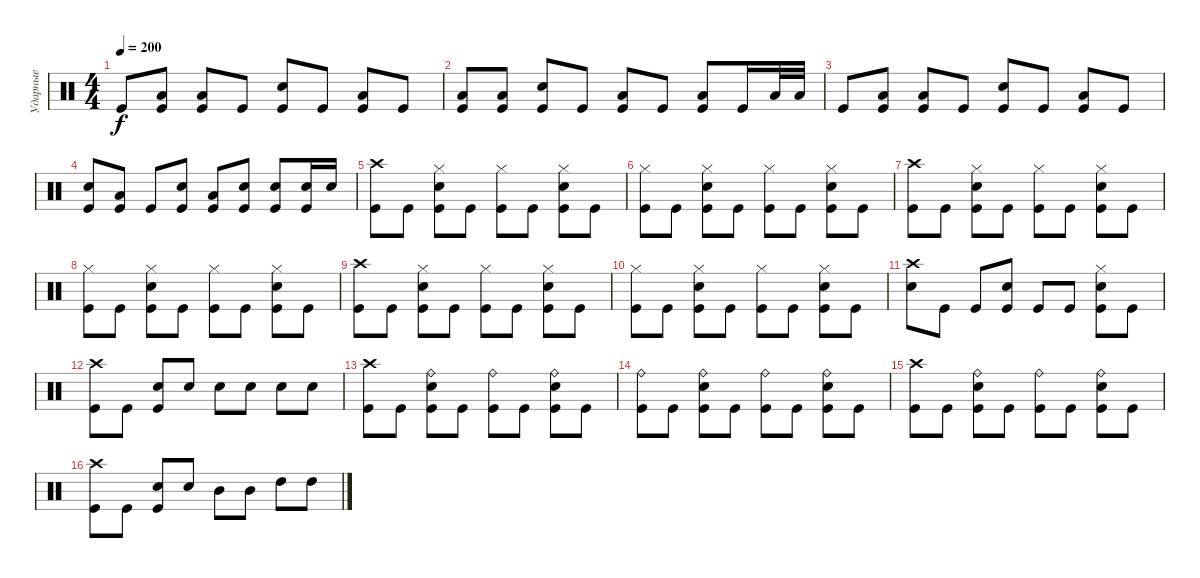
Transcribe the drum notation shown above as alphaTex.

\track ("Ударные" "Ударные") {instrument percussion}
\staff {score}
\articulation defaults
\ts (4 4)
\tempo 200
\clef neutral
\ks c "Kick (hit)".8{dy f}
("Low Tom (hit)" "Kick (hit)").8 ("Low Tom (hit)" "Kick (hit)").8 "Kick (hit)".8 ("Electric Snare (hit)" "Kick (hit)").8 "Kick (hit)".8 ("Low Tom (hit)" "Kick (hit)").8 "Kick (hit)".8 |
("Low Tom (hit)" "Kick (hit)").8 ("Low Tom (hit)" "Kick (hit)").8 ("Electric Snare (hit)" "Kick (hit)").8 "Kick (hit)".8 ("Low Tom (hit)" "Kick (hit)").8 "Kick (hit)".8 ("Low Tom (hit)" "Kick (hit)").8 "Kick (hit)".16 "Low Tom (hit)".32 "Low Tom (hit)".32 |
"Kick (hit)".8 ("Low Tom (hit)" "Kick (hit)").8 ("Low Tom (hit)" "Kick (hit)").8 "Kick (hit)".8 ("Electric Snare (hit)" "Kick (hit)").8 "Kick (hit)".8 ("Low Tom (hit)" "Kick (hit)").8 "Kick (hit)".8 |
("Electric Snare (hit)" "Kick (hit)").8 ("Low Tom (hit)" "Kick (hit)").8 "Kick (hit)".8 ("Electric Snare (hit)" "Kick (hit)").8 ("Low Tom (hit)" "Kick (hit)").8 ("Electric Snare (hit)" "Kick (hit)").8 ("Electric Snare (hit)" "Kick (hit)").8 ("Electric Snare (hit)" "Kick (hit)").16 "Electric Snare (hit)".16 |
("Crash high (hit)" "Kick (hit)").8 "Kick (hit)".8 ("Hi-Hat (closed)" "Electric Snare (hit)" "Kick (hit)").8 "Kick (hit)".8 ("Hi-Hat (closed)" "Kick (hit)").8 "Kick (hit)".8 ("Hi-Hat (closed)" "Electric Snare (hit)" "Kick (hit)").8 "Kick (hit)".8 |
("Hi-Hat (closed)" "Kick (hit)").8 "Kick (hit)".8 ("Hi-Hat (closed)" "Electric Snare (hit)" "Kick (hit)").8 "Kick (hit)".8 ("Hi-Hat (closed)" "Kick (hit)").8 "Kick (hit)".8 ("Hi-Hat (closed)" "Electric Snare (hit)" "Kick (hit)").8 "Kick (hit)".8 |
("Crash high (hit)" "Kick (hit)").8 "Kick (hit)".8 ("Hi-Hat (closed)" "Electric Snare (hit)" "Kick (hit)").8 "Kick (hit)".8 ("Hi-Hat (closed)" "Kick (hit)").8 "Kick (hit)".8 ("Hi-Hat (closed)" "Electric Snare (hit)" "Kick (hit)").8 "Kick (hit)".8 |
("Hi-Hat (closed)" "Kick (hit)").8 "Kick (hit)".8 ("Hi-Hat (closed)" "Electric Snare (hit)" "Kick (hit)").8 "Kick (hit)".8 ("Hi-Hat (closed)" "Kick (hit)").8 "Kick (hit)".8 ("Hi-Hat (closed)" "Electric Snare (hit)" "Kick (hit)").8 "Kick (hit)".8 |
("Crash high (hit)" "Kick (hit)").8 "Kick (hit)".8 ("Hi-Hat (closed)" "Electric Snare (hit)" "Kick (hit)").8 "Kick (hit)".8 ("Hi-Hat (closed)" "Kick (hit)").8 "Kick (hit)".8 ("Hi-Hat (closed)" "Electric Snare (hit)" "Kick (hit)").8 "Kick (hit)".8 |
("Hi-Hat (closed)" "Kick (hit)").8 "Kick (hit)".8 ("Hi-Hat (closed)" "Electric Snare (hit)" "Kick (hit)").8 "Kick (hit)".8 ("Hi-Hat (closed)" "Kick (hit)").8 "Kick (hit)".8 ("Hi-Hat (closed)" "Electric Snare (hit)" "Kick (hit)").8 "Kick (hit)".8 |
("Crash high (hit)" "Electric Snare (hit)").8 "Kick (hit)".8 "Kick (hit)".8 ("Electric Snare (hit)" "Kick (hit)").8 "Kick (hit)".8 "Kick (hit)".8 ("Hi-Hat (closed)" "Electric Snare (hit)" "Kick (hit)").8 "Kick (hit)".8 |
("Crash high (hit)" "Kick (hit)").8 "Kick (hit)".8 ("Electric Snare (hit)" "Kick (hit)").8 "Electric Snare (hit)".8 "Electric Snare (hit)".8 "Electric Snare (hit)".8 "Electric Snare (hit)".8 "Electric Snare (hit)".8 |
("Crash high (hit)" "Kick (hit)").8 "Kick (hit)".8 ("Ride (bell)" "Electric Snare (hit)" "Kick (hit)").8 "Kick (hit)".8 ("Ride (bell)" "Kick (hit)").8 "Kick (hit)".8 ("Ride (bell)" "Electric Snare (hit)" "Kick (hit)").8 "Kick (hit)".8 |
("Ride (bell)" "Kick (hit)").8 "Kick (hit)".8 ("Ride (bell)" "Electric Snare (hit)" "Kick (hit)").8 "Kick (hit)".8 ("Ride (bell)" "Kick (hit)").8 "Kick (hit)".8 ("Ride (bell)" "Electric Snare (hit)" "Kick (hit)").8 "Kick (hit)".8 |
("Crash high (hit)" "Kick (hit)").8 "Kick (hit)".8 ("Ride (bell)" "Electric Snare (hit)" "Kick (hit)").8 "Kick (hit)".8 ("Ride (bell)" "Kick (hit)").8 "Kick (hit)".8 ("Ride (bell)" "Electric Snare (hit)" "Kick (hit)").8 "Kick (hit)".8 |
("Crash high (hit)" "Kick (hit)").8 "Kick (hit)".8 ("Electric Snare (hit)" "Kick (hit)").8 "Electric Snare (hit)".8 "Mid Tom (hit)".8 "Mid Tom (hit)".8 "High Tom (hit)".8 "High Tom (hit)".8
